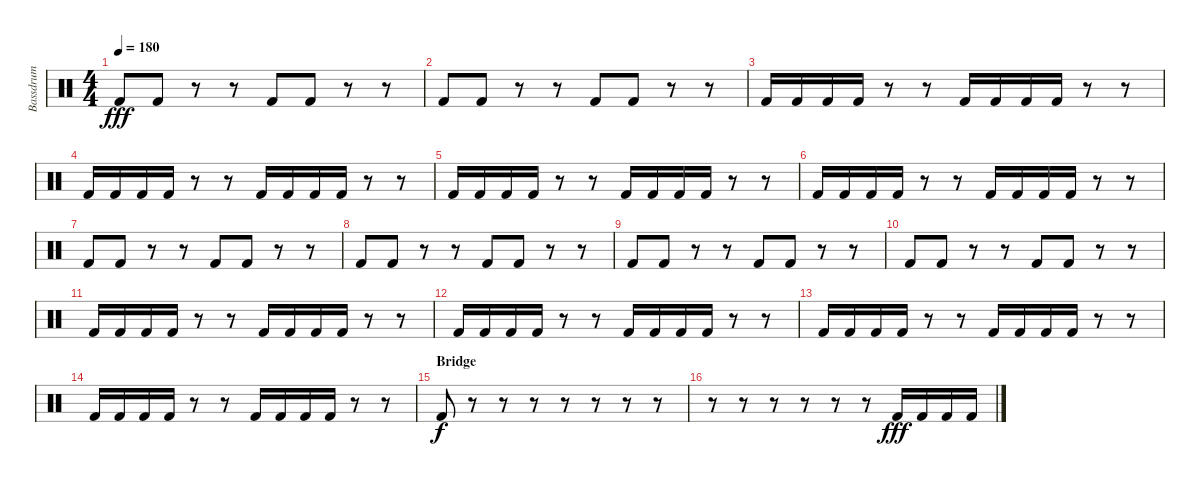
\track ("Bassdrum" "Bassdrum") {instrument percussion}
\staff {score}
\articulation defaults
\ts (4 4)
\tempo 180
\clef neutral
\ks c "Kick (hit) 2".8{dy fff} "Kick (hit) 2".8
r.8 r.8 "Kick (hit) 2".8 "Kick (hit) 2".8 r.8 r.8 |
"Kick (hit) 2".8 "Kick (hit) 2".8 r.8 r.8 "Kick (hit) 2".8 "Kick (hit) 2".8 r.8 r.8 |
"Kick (hit) 2".16 "Kick (hit) 2".16 "Kick (hit) 2".16 "Kick (hit) 2".16 r.8 r.8 "Kick (hit) 2".16 "Kick (hit) 2".16 "Kick (hit) 2".16 "Kick (hit) 2".16 r.8 r.8 |
"Kick (hit) 2".16 "Kick (hit) 2".16 "Kick (hit) 2".16 "Kick (hit) 2".16 r.8 r.8 "Kick (hit) 2".16 "Kick (hit) 2".16 "Kick (hit) 2".16 "Kick (hit) 2".16 r.8 r.8 |
"Kick (hit) 2".16 "Kick (hit) 2".16 "Kick (hit) 2".16 "Kick (hit) 2".16 r.8 r.8 "Kick (hit) 2".16 "Kick (hit) 2".16 "Kick (hit) 2".16 "Kick (hit) 2".16 r.8 r.8 |
"Kick (hit) 2".16 "Kick (hit) 2".16 "Kick (hit) 2".16 "Kick (hit) 2".16 r.8 r.8 "Kick (hit) 2".16 "Kick (hit) 2".16 "Kick (hit) 2".16 "Kick (hit) 2".16 r.8 r.8 |
"Kick (hit) 2".8 "Kick (hit) 2".8 r.8 r.8 "Kick (hit) 2".8 "Kick (hit) 2".8 r.8 r.8 |
"Kick (hit) 2".8 "Kick (hit) 2".8 r.8 r.8 "Kick (hit) 2".8 "Kick (hit) 2".8 r.8 r.8 |
"Kick (hit) 2".8 "Kick (hit) 2".8 r.8 r.8 "Kick (hit) 2".8 "Kick (hit) 2".8 r.8 r.8 |
"Kick (hit) 2".8 "Kick (hit) 2".8 r.8 r.8 "Kick (hit) 2".8 "Kick (hit) 2".8 r.8 r.8 |
"Kick (hit) 2".16 "Kick (hit) 2".16 "Kick (hit) 2".16 "Kick (hit) 2".16 r.8 r.8 "Kick (hit) 2".16 "Kick (hit) 2".16 "Kick (hit) 2".16 "Kick (hit) 2".16 r.8 r.8 |
"Kick (hit) 2".16 "Kick (hit) 2".16 "Kick (hit) 2".16 "Kick (hit) 2".16 r.8 r.8 "Kick (hit) 2".16 "Kick (hit) 2".16 "Kick (hit) 2".16 "Kick (hit) 2".16 r.8 r.8 |
"Kick (hit) 2".16 "Kick (hit) 2".16 "Kick (hit) 2".16 "Kick (hit) 2".16 r.8 r.8 "Kick (hit) 2".16 "Kick (hit) 2".16 "Kick (hit) 2".16 "Kick (hit) 2".16 r.8 r.8 |
"Kick (hit) 2".16 "Kick (hit) 2".16 "Kick (hit) 2".16 "Kick (hit) 2".16 r.8 r.8 "Kick (hit) 2".16 "Kick (hit) 2".16 "Kick (hit) 2".16 "Kick (hit) 2".16 r.8 r.8 |
\section ("" "Bridge")
"Kick (hit) 2".8{dy f} r.8 r.8 r.8 r.8 r.8 r.8 r.8 |
r.8 r.8 r.8 r.8 r.8 r.8 "Kick (hit) 2".16{dy fff} "Kick (hit) 2".16 "Kick (hit) 2".16 "Kick (hit) 2".16
